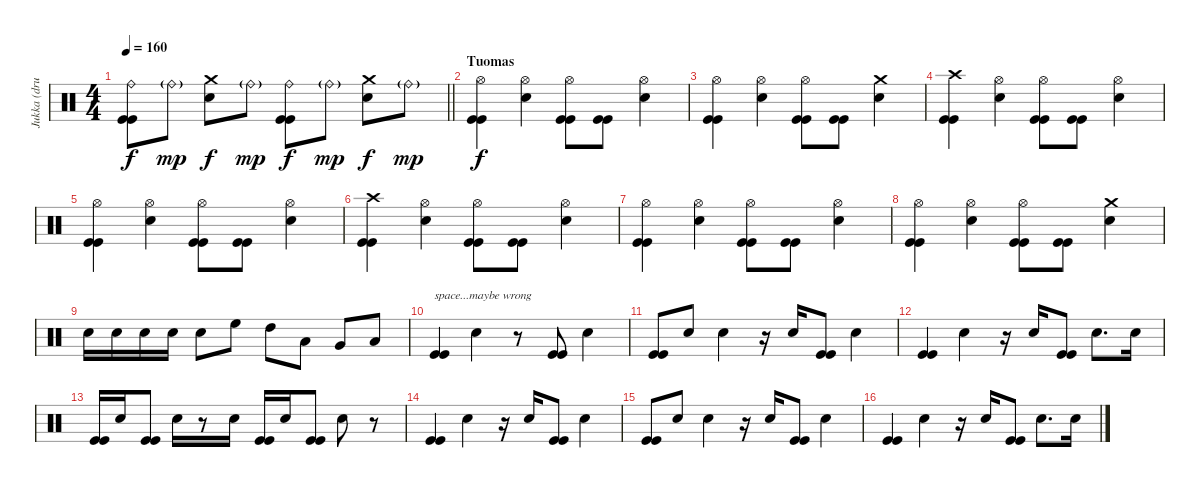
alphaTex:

\track ("Jukka (drums)" "Jukka (dru") {instrument percussion}
\staff {score}
\articulation defaults
\ts (4 4)
\tempo 160
\clef neutral
\barLineRight lightlight
\ks c
("Ride (bell)" "Kick (hit)" "Kick (hit)").8{dy f} "Ride (bell)"{g}.8{dy mp} ("Crash medium (hit)" "Electric Snare (hit)").8{dy f} "Ride (bell)"{g}.8{dy mp} ("Ride (bell)" "Kick (hit)" "Kick (hit)").8{dy f} "Ride (bell)"{g}.8{dy mp} ("Crash medium (hit)" "Electric Snare (hit)").8{dy f} "Ride (bell)"{g}.8{dy mp} |
\section ("" "Tuomas")
("Hi-Hat (open)" "Kick (hit)" "Kick (hit)").4{dy f} ("Hi-Hat (open)" "Electric Snare (hit)").4 ("Hi-Hat (open)" "Kick (hit)" "Kick (hit)").8 ("Kick (hit)" "Kick (hit)").8 ("Hi-Hat (open)" "Electric Snare (hit)").4 |
("Hi-Hat (open)" "Kick (hit)" "Kick (hit)").4 ("Hi-Hat (open)" "Electric Snare (hit)").4 ("Hi-Hat (open)" "Kick (hit)" "Kick (hit)").8 ("Kick (hit)" "Kick (hit)").8 ("Crash medium (hit)" "Electric Snare (hit)").4 |
("Crash high (hit)" "Kick (hit)" "Kick (hit)").4 ("Hi-Hat (open)" "Electric Snare (hit)").4 ("Hi-Hat (open)" "Kick (hit)" "Kick (hit)").8 ("Kick (hit)" "Kick (hit)").8 ("Hi-Hat (open)" "Electric Snare (hit)").4 |
("Hi-Hat (open)" "Kick (hit)" "Kick (hit)").4 ("Hi-Hat (open)" "Electric Snare (hit)").4 ("Hi-Hat (open)" "Kick (hit)" "Kick (hit)").8 ("Kick (hit)" "Kick (hit)").8 ("Hi-Hat (open)" "Electric Snare (hit)").4 |
("Crash high (hit)" "Kick (hit)" "Kick (hit)").4 ("Hi-Hat (open)" "Electric Snare (hit)").4 ("Hi-Hat (open)" "Kick (hit)" "Kick (hit)").8 ("Kick (hit)" "Kick (hit)").8 ("Hi-Hat (open)" "Electric Snare (hit)").4 |
("Hi-Hat (open)" "Kick (hit)" "Kick (hit)").4 ("Hi-Hat (open)" "Electric Snare (hit)").4 ("Hi-Hat (open)" "Kick (hit)" "Kick (hit)").8 ("Kick (hit)" "Kick (hit)").8 ("Hi-Hat (open)" "Electric Snare (hit)").4 |
("Hi-Hat (open)" "Kick (hit)" "Kick (hit)").4 ("Hi-Hat (open)" "Electric Snare (hit)").4 ("Hi-Hat (open)" "Kick (hit)" "Kick (hit)").8 ("Kick (hit)" "Kick (hit)").8 ("Crash medium (hit)" "Electric Snare (hit)").4 |
"Electric Snare (hit)".16 "Electric Snare (hit)".16 "Electric Snare (hit)".16 "Electric Snare (hit)".16 "Electric Snare (hit)".8 "High Floor Tom (hit)".8 "High Tom (hit)".8 "Low Tom (hit)".8 "Very Low Tom (hit)".8 "Low Floor Tom (hit)".8 |
("Kick (hit)" "Kick (hit)").4{txt "space...maybe wrong" volume 8} "Electric Snare (hit)".4 r.8 ("Kick (hit)" "Kick (hit)").8 "Electric Snare (hit)".4 |
("Kick (hit)" "Kick (hit)").8 "Electric Snare (hit)".8 "Electric Snare (hit)".4 r.16 "Electric Snare (hit)".16 ("Kick (hit)" "Kick (hit)").8 "Electric Snare (hit)".4 |
("Kick (hit)" "Kick (hit)").4 "Electric Snare (hit)".4 r.16 "Electric Snare (hit)".16 ("Kick (hit)" "Kick (hit)").8 "Electric Snare (hit)".8{d} "Electric Snare (hit)".16 |
("Kick (hit)" "Kick (hit)").16 "Electric Snare (hit)".16 ("Kick (hit)" "Kick (hit)").8 "Electric Snare (hit)".16 r.8 "Electric Snare (hit)".16 ("Kick (hit)" "Kick (hit)").16 "Electric Snare (hit)".16 ("Kick (hit)" "Kick (hit)").8 "Electric Snare (hit)".8 r.8 |
("Kick (hit)" "Kick (hit)").4 "Electric Snare (hit)".4 r.16 "Electric Snare (hit)".16 ("Kick (hit)" "Kick (hit)").8 "Electric Snare (hit)".4 |
("Kick (hit)" "Kick (hit)").8 "Electric Snare (hit)".8 "Electric Snare (hit)".4 r.16 "Electric Snare (hit)".16 ("Kick (hit)" "Kick (hit)").8 "Electric Snare (hit)".4 |
("Kick (hit)" "Kick (hit)").4 "Electric Snare (hit)".4 r.16 "Electric Snare (hit)".16 ("Kick (hit)" "Kick (hit)").8 "Electric Snare (hit)".8{d} "Electric Snare (hit)".16
